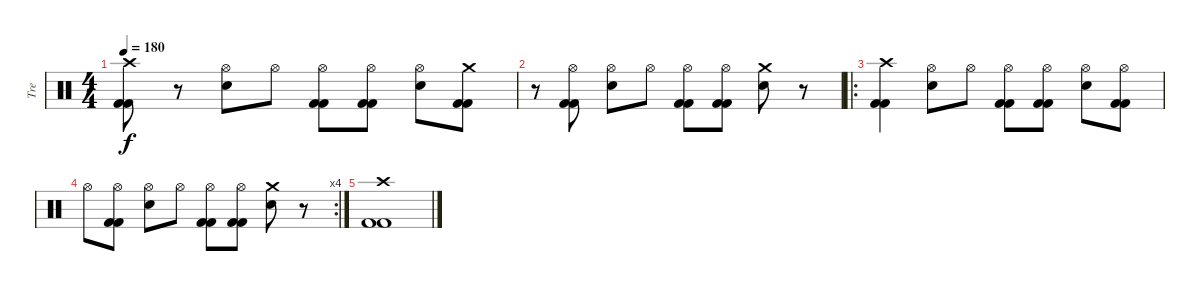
\track ("Tre" "Tre") {instrument percussion}
\staff {score}
\articulation defaults
\ts (4 4)
\tempo 180
\clef neutral
\ks c
("Crash high (hit)" "Kick (hit) 2" "Kick (hit) 2").8{dy f} r.8 ("Hi-Hat (open)" "Snare (hit) 2").8 "Hi-Hat (open)".8 ("Hi-Hat (open)" "Kick (hit) 2" "Kick (hit) 2").8 ("Hi-Hat (open)" "Kick (hit) 2" "Kick (hit) 2").8 ("Hi-Hat (open)" "Snare (hit) 2").8 ("Crash medium (hit)" "Kick (hit) 2" "Kick (hit) 2").8 |
r.8 ("Hi-Hat (open)" "Kick (hit) 2" "Kick (hit) 2").8 ("Hi-Hat (open)" "Snare (hit) 2").8 "Hi-Hat (open)".8 ("Hi-Hat (open)" "Kick (hit) 2" "Kick (hit) 2").8 ("Hi-Hat (open)" "Kick (hit) 2" "Kick (hit) 2").8 ("Crash medium (hit)" "Snare (hit) 2").8 r.8 |
\ro
("Crash high (hit)" "Kick (hit) 2" "Kick (hit) 2").4 ("Hi-Hat (open)" "Snare (hit) 2").8 "Hi-Hat (open)".8 ("Hi-Hat (open)" "Kick (hit) 2" "Kick (hit) 2").8 ("Hi-Hat (open)" "Kick (hit) 2" "Kick (hit) 2").8 ("Hi-Hat (open)" "Snare (hit) 2").8 ("Hi-Hat (open)" "Kick (hit) 2" "Kick (hit) 2").8 |
\rc 4 "Hi-Hat (open)".8
("Hi-Hat (open)" "Kick (hit) 2" "Kick (hit) 2").8 ("Hi-Hat (open)" "Snare (hit) 2").8 "Hi-Hat (open)".8 ("Hi-Hat (open)" "Kick (hit) 2" "Kick (hit) 2").8 ("Hi-Hat (open)" "Kick (hit) 2" "Kick (hit) 2").8 ("Crash medium (hit)" "Snare (hit) 2").8 r.8 |
("Crash high (hit)" "Kick (hit) 2" "Kick (hit) 2").1
